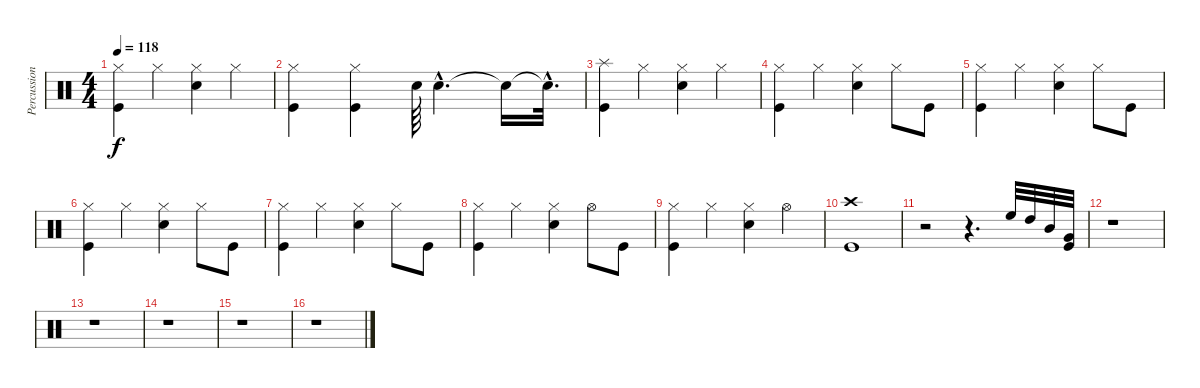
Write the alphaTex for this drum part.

\track ("Percussioni" "Percussion") {instrument percussion}
\staff {score}
\articulation defaults
\ts (4 4)
\tempo 118
\clef neutral
\ks c
("Hi-Hat (closed)" "Kick (hit)").4{dy f} "Hi-Hat (closed)".4 ("Hi-Hat (closed)" "Snare (hit) 2").4 "Hi-Hat (closed)".4 |
("Hi-Hat (closed)" "Kick (hit)").4 ("Hi-Hat (closed)" "Kick (hit)").4 "Snare (hit) 2".64 "Snare (hit) 2"{hac}.4{d} "Snare (hit)"{t}.16 "Snare (hit)"{hac t}.32{d} |
("Splash (hit)" "Kick (hit)").4 "Hi-Hat (closed)".4 ("Hi-Hat (closed)" "Snare (hit) 2").4 "Hi-Hat (closed)".4 |
("Hi-Hat (closed)" "Kick (hit)").4 "Hi-Hat (closed)".4 ("Hi-Hat (closed)" "Snare (hit) 2").4 "Hi-Hat (closed)".8 "Kick (hit)".8 |
("Hi-Hat (closed)" "Kick (hit)").4 "Hi-Hat (closed)".4 ("Hi-Hat (closed)" "Snare (hit) 2").4 "Hi-Hat (closed)".8 "Kick (hit)".8 |
("Hi-Hat (closed)" "Kick (hit)").4 "Hi-Hat (closed)".4 ("Hi-Hat (closed)" "Snare (hit) 2").4 "Hi-Hat (closed)".8 "Kick (hit)".8 |
("Hi-Hat (closed)" "Kick (hit)").4 "Hi-Hat (closed)".4 ("Hi-Hat (closed)" "Snare (hit) 2").4 "Hi-Hat (closed)".8 "Kick (hit)".8 |
("Hi-Hat (closed)" "Kick (hit)").4 "Hi-Hat (closed)".4 ("Hi-Hat (closed)" "Snare (hit) 2").4 "Hi-Hat (open)".8 "Kick (hit)".8 |
("Hi-Hat (closed)" "Kick (hit)").4 "Hi-Hat (closed)".4 ("Hi-Hat (closed)" "Snare (hit) 2").4 "Hi-Hat (open)".4 |
("Crash high (hit)" "Kick (hit)").1 |
r.2 r.4{d} "High Floor Tom (hit)".32 "High Tom (hit)".32 "Mid Tom (hit)".32 ("Very Low Tom (hit)" "Kick (hit)").32 |
r.1 |
r.1 |
r.1 |
r.1 |
r.1
